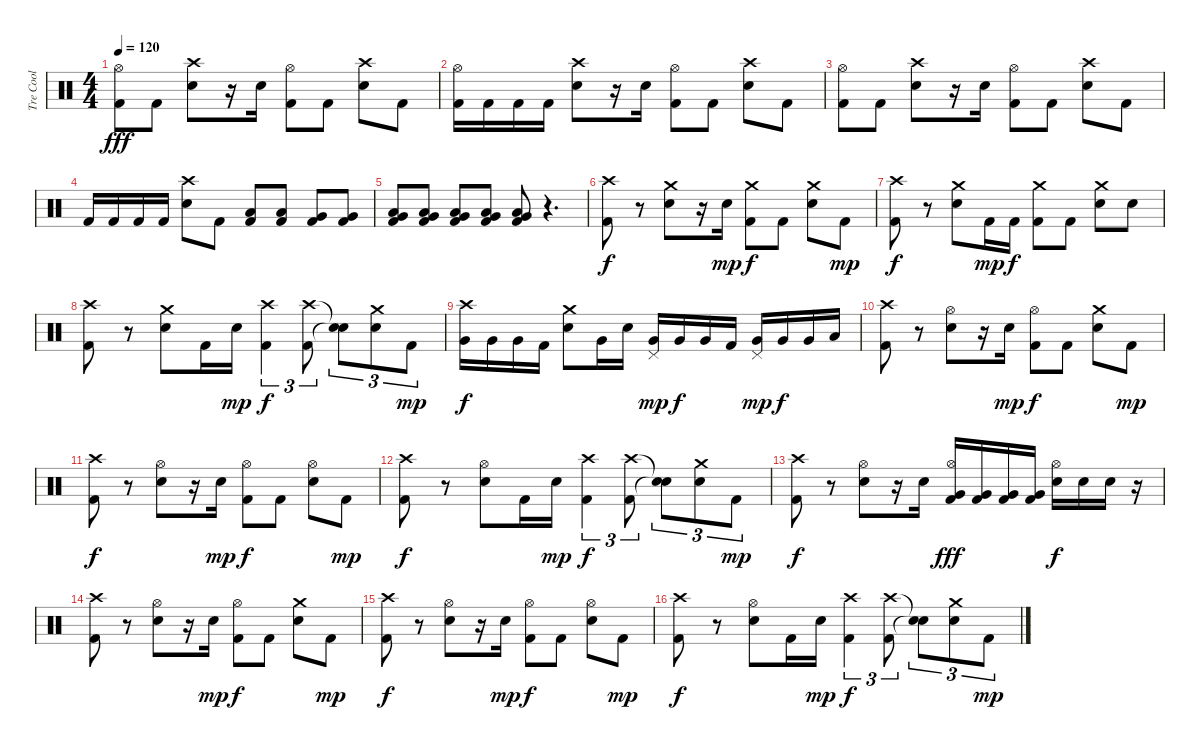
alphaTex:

\track ("Tre Cool" "Tre Cool") {instrument percussion}
\staff {score}
\articulation defaults
\ts (4 4)
\tempo 120
\clef neutral
\ks c
("Kick (hit) 2" "Hi-Hat (open)").8{dy fff} "Kick (hit) 2".8 ("Electric Snare (hit)" "Crash high (hit)").8 r.16 "Electric Snare (hit)".16 ("Kick (hit) 2" "Hi-Hat (open)").8 "Kick (hit) 2".8 ("Electric Snare (hit)" "Crash high (hit)").8 "Kick (hit) 2".8 |
("Kick (hit) 2" "Hi-Hat (open)").16 "Kick (hit) 2".16 "Kick (hit) 2".16 "Kick (hit) 2".16 ("Electric Snare (hit)" "Crash high (hit)").8 r.16 "Electric Snare (hit)".16 ("Kick (hit) 2" "Hi-Hat (open)").8 "Kick (hit) 2".8 ("Electric Snare (hit)" "Crash high (hit)").8 "Kick (hit) 2".8 |
("Kick (hit) 2" "Hi-Hat (open)").8 "Kick (hit) 2".8 ("Electric Snare (hit)" "Crash high (hit)").8 r.16 "Electric Snare (hit)".16 ("Kick (hit) 2" "Hi-Hat (open)").8 "Kick (hit) 2".8 ("Electric Snare (hit)" "Crash high (hit)").8 "Kick (hit) 2".8 |
"Kick (hit) 2".16 "Kick (hit) 2".16 "Kick (hit) 2".16 "Kick (hit) 2".16 ("Electric Snare (hit)" "Crash high (hit)").8 "Kick (hit) 2".8 ("Kick (hit) 2" "Low Floor Tom (hit)").8 ("Kick (hit) 2" "Low Floor Tom (hit)").8 ("Kick (hit) 2" "Very Low Tom (hit)").8 ("Kick (hit) 2" "Very Low Tom (hit)").8 |
("Kick (hit) 2" "Very Low Tom (hit)" "Low Floor Tom (hit)").8 ("Kick (hit) 2" "Very Low Tom (hit)" "Low Floor Tom (hit)").8 ("Kick (hit) 2" "Very Low Tom (hit)" "Low Floor Tom (hit)").8 ("Kick (hit) 2" "Very Low Tom (hit)" "Low Floor Tom (hit)").8 ("Kick (hit) 2" "Very Low Tom (hit)" "Low Floor Tom (hit)").8 r.4{d} |
("Kick (hit) 2" "Crash high (hit)").8{dy f} r.8 ("Electric Snare (hit)" "Crash medium (hit)").8 r.16 "Snare (hit) 2".16{dy mp} ("Kick (hit) 2" "Crash medium (hit)").8{dy f} "Kick (hit) 2".8 ("Electric Snare (hit)" "Crash medium (hit)").8 "Kick (hit) 2".8{dy mp} |
("Kick (hit) 2" "Crash high (hit)").8{dy f} r.8 ("Electric Snare (hit)" "Crash medium (hit)").8 "Kick (hit) 2".16{dy mp} "Kick (hit) 2".16{dy f} ("Kick (hit) 2" "Crash medium (hit)").8 "Kick (hit) 2".8 ("Electric Snare (hit)" "Crash medium (hit)").8 "Electric Snare (hit)".8 |
("Kick (hit) 2" "Crash high (hit)").8 r.8 ("Electric Snare (hit)" "Crash medium (hit)").8 "Kick (hit) 2".16 "Snare (hit) 2".16{dy mp} ("Kick (hit) 2" "Crash high (hit)").4{tu (3 2) dy f} ("Kick (hit) 2" "Crash high (hit)").8{tu (3 2)} ("Snare (hit)"{t} "Snare (hit)"{t}).8{tu (3 2)} ("Electric Snare (hit)" "Crash medium (hit)").8{tu (3 2)} "Kick (hit) 2".8{tu (3 2) dy mp} |
("Very Low Tom (hit)" "Crash high (hit)").16{dy f} "Very Low Tom (hit)".16 "Very Low Tom (hit)".16 "Kick (hit) 2".16 ("Electric Snare (hit)" "Crash medium (hit)").8 "Very Low Tom (hit)".16 "Electric Snare (hit)".16 ("Very Low Tom (hit)" "Pedal Hi-Hat (hit)").16{dy mp} "Very Low Tom (hit)".16{dy f} "Very Low Tom (hit)".16 "Kick (hit) 2".16 ("Very Low Tom (hit)" "Pedal Hi-Hat (hit)").16{dy mp} "Very Low Tom (hit)".16{dy f} "Very Low Tom (hit)".16 "Low Floor Tom (hit)".16 |
("Kick (hit) 2" "Crash high (hit)").8 r.8 ("Electric Snare (hit)" "Hi-Hat (open)").8 r.16 "Snare (hit) 2".16{dy mp} ("Kick (hit) 2" "Hi-Hat (open)").8{dy f} "Kick (hit) 2".8 ("Electric Snare (hit)" "Crash medium (hit)").8 "Kick (hit) 2".8{dy mp} |
("Kick (hit) 2" "Crash high (hit)").8{dy f} r.8 ("Electric Snare (hit)" "Hi-Hat (open)").8 r.16 "Snare (hit) 2".16{dy mp} ("Kick (hit) 2" "Hi-Hat (open)").8{dy f} "Kick (hit) 2".8 ("Electric Snare (hit)" "Hi-Hat (open)").8 "Kick (hit) 2".8{dy mp} |
("Kick (hit) 2" "Crash high (hit)").8{dy f} r.8 ("Electric Snare (hit)" "Hi-Hat (open)").8 "Kick (hit) 2".16 "Snare (hit) 2".16{dy mp} ("Kick (hit) 2" "Crash high (hit)").4{tu (3 2) dy f} ("Kick (hit) 2" "Crash high (hit)").8{tu (3 2)} ("Snare (hit)"{t} "Snare (hit)"{t}).8{tu (3 2)} ("Electric Snare (hit)" "Crash medium (hit)").8{tu (3 2)} "Kick (hit) 2".8{tu (3 2) dy mp} |
("Kick (hit) 2" "Crash high (hit)").8{dy f} r.8 ("Electric Snare (hit)" "Hi-Hat (open)").8 r.16 "Snare (hit) 2".16 ("Kick (hit) 2" "Very Low Tom (hit)" "Hi-Hat (open)").16{dy fff} ("Kick (hit) 2" "Very Low Tom (hit)").16 ("Kick (hit) 2" "Very Low Tom (hit)").16 ("Kick (hit) 2" "Very Low Tom (hit)").16 ("Electric Snare (hit)" "Hi-Hat (open)").16{dy f} "Electric Snare (hit)".16 "Electric Snare (hit)".16 r.16 |
("Kick (hit) 2" "Crash high (hit)").8 r.8 ("Electric Snare (hit)" "Hi-Hat (open)").8 r.16 "Snare (hit) 2".16{dy mp} ("Kick (hit) 2" "Hi-Hat (open)").8{dy f} "Kick (hit) 2".8 ("Electric Snare (hit)" "Crash medium (hit)").8 "Kick (hit) 2".8{dy mp} |
("Kick (hit) 2" "Crash high (hit)").8{dy f} r.8 ("Electric Snare (hit)" "Hi-Hat (open)").8 r.16 "Snare (hit) 2".16{dy mp} ("Kick (hit) 2" "Hi-Hat (open)").8{dy f} "Kick (hit) 2".8 ("Electric Snare (hit)" "Hi-Hat (open)").8 "Kick (hit) 2".8{dy mp} |
("Kick (hit) 2" "Crash high (hit)").8{dy f} r.8 ("Electric Snare (hit)" "Hi-Hat (open)").8 "Kick (hit) 2".16 "Snare (hit) 2".16{dy mp} ("Kick (hit) 2" "Crash high (hit)").4{tu (3 2) dy f} ("Kick (hit) 2" "Crash high (hit)").8{tu (3 2)} ("Snare (hit)"{t} "Snare (hit)"{t}).8{tu (3 2)} ("Electric Snare (hit)" "Crash medium (hit)").8{tu (3 2)} "Kick (hit) 2".8{tu (3 2) dy mp}
